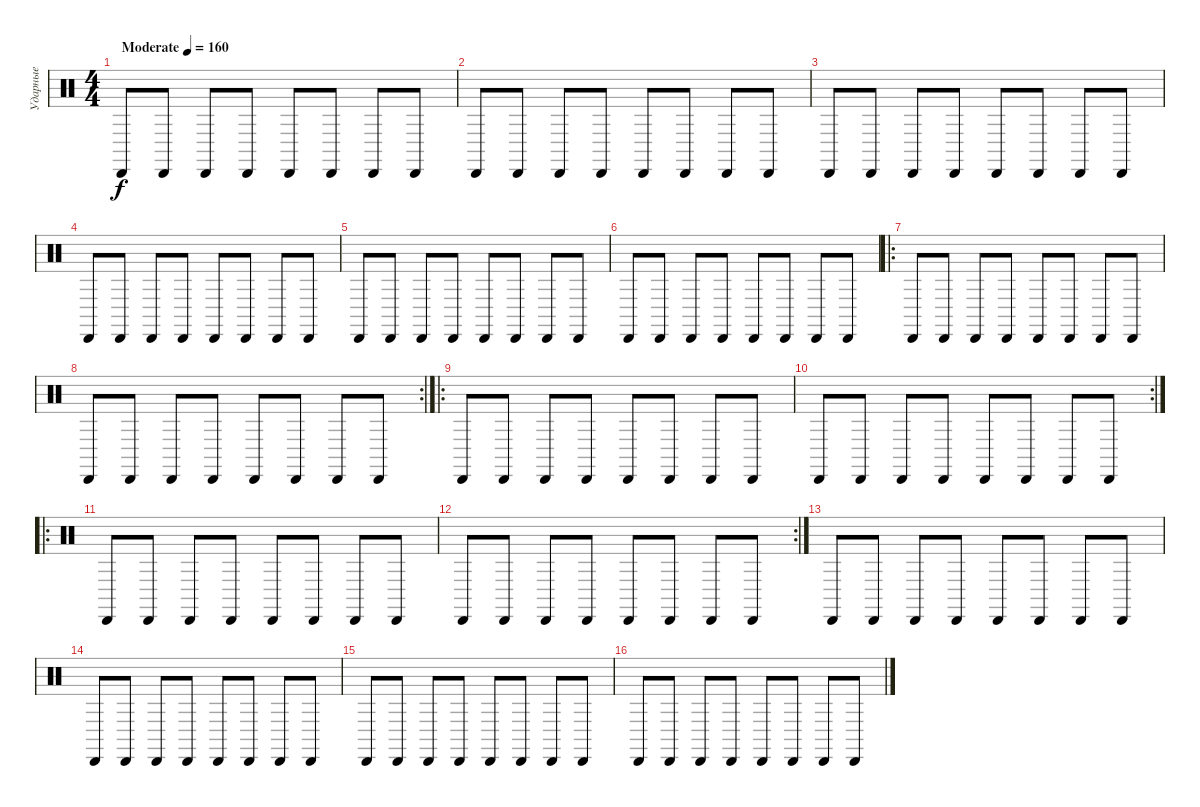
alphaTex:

\track ("Ударные" "Ударные") {instrument percussion}
\staff {score}
\articulation defaults
\ts (4 4)
\tempo (160 "Moderate")
\clef neutral
\ks c "Cabasa (hit)".8{dy f} "Cabasa (hit)".8 "Cabasa (hit)".8 "Cabasa (hit)".8 "Cabasa (hit)".8 "Cabasa (hit)".8 "Cabasa (hit)".8 "Cabasa (hit)".8
|
"Cabasa (hit)".8 "Cabasa (hit)".8 "Cabasa (hit)".8 "Cabasa (hit)".8 "Cabasa (hit)".8 "Cabasa (hit)".8 "Cabasa (hit)".8 "Cabasa (hit)".8 |
"Cabasa (hit)".8 "Cabasa (hit)".8 "Cabasa (hit)".8 "Cabasa (hit)".8 "Cabasa (hit)".8 "Cabasa (hit)".8 "Cabasa (hit)".8 "Cabasa (hit)".8 |
"Cabasa (hit)".8 "Cabasa (hit)".8 "Cabasa (hit)".8 "Cabasa (hit)".8 "Cabasa (hit)".8 "Cabasa (hit)".8 "Cabasa (hit)".8 "Cabasa (hit)".8 |
"Cabasa (hit)".8 "Cabasa (hit)".8 "Cabasa (hit)".8 "Cabasa (hit)".8 "Cabasa (hit)".8 "Cabasa (hit)".8 "Cabasa (hit)".8 "Cabasa (hit)".8 |
"Cabasa (hit)".8 "Cabasa (hit)".8 "Cabasa (hit)".8 "Cabasa (hit)".8 "Cabasa (hit)".8 "Cabasa (hit)".8 "Cabasa (hit)".8 "Cabasa (hit)".8 |
\ro "Cabasa (hit)".8 "Cabasa (hit)".8 "Cabasa (hit)".8 "Cabasa (hit)".8 "Cabasa (hit)".8 "Cabasa (hit)".8 "Cabasa (hit)".8 "Cabasa (hit)".8
|
\rc 2 "Cabasa (hit)".8 "Cabasa (hit)".8 "Cabasa (hit)".8 "Cabasa (hit)".8 "Cabasa (hit)".8 "Cabasa (hit)".8 "Cabasa (hit)".8 "Cabasa (hit)".8
|
\ro "Cabasa (hit)".8 "Cabasa (hit)".8 "Cabasa (hit)".8 "Cabasa (hit)".8 "Cabasa (hit)".8 "Cabasa (hit)".8 "Cabasa (hit)".8 "Cabasa (hit)".8
|
\rc 2 "Cabasa (hit)".8 "Cabasa (hit)".8 "Cabasa (hit)".8 "Cabasa (hit)".8 "Cabasa (hit)".8 "Cabasa (hit)".8 "Cabasa (hit)".8 "Cabasa (hit)".8
|
\ro "Cabasa (hit)".8 "Cabasa (hit)".8 "Cabasa (hit)".8 "Cabasa (hit)".8 "Cabasa (hit)".8 "Cabasa (hit)".8 "Cabasa (hit)".8 "Cabasa (hit)".8
|
\rc 2 "Cabasa (hit)".8 "Cabasa (hit)".8 "Cabasa (hit)".8 "Cabasa (hit)".8 "Cabasa (hit)".8 "Cabasa (hit)".8 "Cabasa (hit)".8 "Cabasa (hit)".8
|
"Cabasa (hit)".8 "Cabasa (hit)".8 "Cabasa (hit)".8 "Cabasa (hit)".8 "Cabasa (hit)".8 "Cabasa (hit)".8 "Cabasa (hit)".8 "Cabasa (hit)".8 |
"Cabasa (hit)".8 "Cabasa (hit)".8 "Cabasa (hit)".8 "Cabasa (hit)".8 "Cabasa (hit)".8 "Cabasa (hit)".8 "Cabasa (hit)".8 "Cabasa (hit)".8 |
"Cabasa (hit)".8 "Cabasa (hit)".8 "Cabasa (hit)".8 "Cabasa (hit)".8 "Cabasa (hit)".8 "Cabasa (hit)".8 "Cabasa (hit)".8 "Cabasa (hit)".8 |
"Cabasa (hit)".8 "Cabasa (hit)".8 "Cabasa (hit)".8 "Cabasa (hit)".8 "Cabasa (hit)".8 "Cabasa (hit)".8 "Cabasa (hit)".8 "Cabasa (hit)".8
